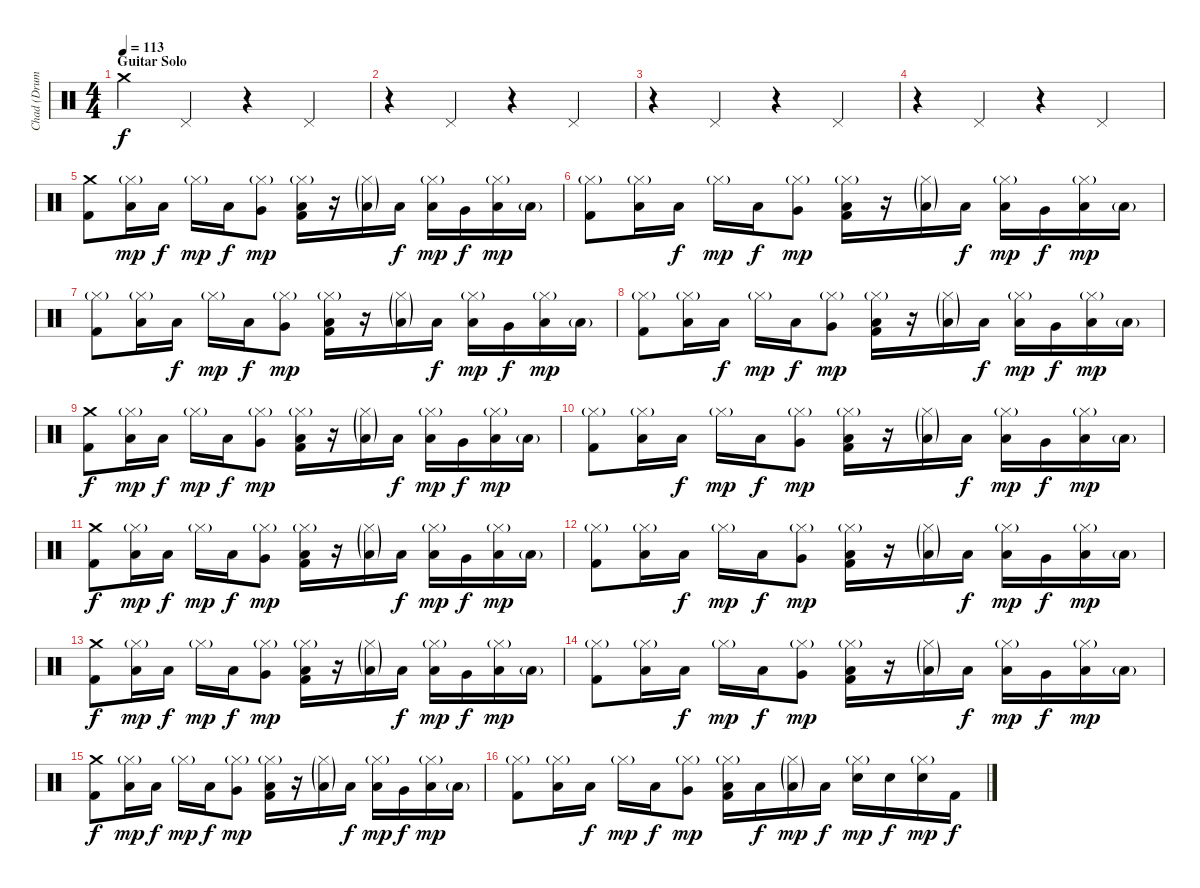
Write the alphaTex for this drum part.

\track ("Chad (Drums)" "Chad (Drum") {instrument percussion}
\staff {score}
\articulation defaults
\ts (4 4)
\section ("" "Guitar Solo")
\tempo 113
\clef neutral
\ks c "Crash medium (hit)".4{dy f} "Pedal Hi-Hat (hit)".4
r.4 "Pedal Hi-Hat (hit)".4 |
r.4 "Pedal Hi-Hat (hit)".4 r.4 "Pedal Hi-Hat (hit)".4 |
r.4 "Pedal Hi-Hat (hit)".4 r.4 "Pedal Hi-Hat (hit)".4 |
r.4 "Pedal Hi-Hat (hit)".4 r.4 "Pedal Hi-Hat (hit)".4 |
("Crash medium (hit)" "Kick (hit) 2").8 ("Hi-Hat (closed)"{g} "Low Tom (hit)").16{dy mp} "Low Tom (hit)".16{dy f} "Hi-Hat (closed)"{g}.16{dy mp} "Low Tom (hit)".16{dy f} ("Hi-Hat (closed)"{g} "Very Low Tom (hit)").8{dy mp} ("Hi-Hat (closed)"{g} "Low Tom (hit)" "Kick (hit) 2").16 r.16 ("Hi-Hat (closed)"{g} "Low Tom (hit)"{g}).16 "Low Tom (hit)".16{dy f} ("Hi-Hat (closed)"{g} "Low Tom (hit)").16{dy mp} "Very Low Tom (hit)".16{dy f} ("Hi-Hat (closed)"{g} "Low Floor Tom (hit)").16{dy mp} "Low Floor Tom (hit)"{g}.16 |
("Hi-Hat (closed)"{g} "Kick (hit) 2").8 ("Hi-Hat (closed)"{g} "Low Tom (hit)").16 "Low Tom (hit)".16{dy f} "Hi-Hat (closed)"{g}.16{dy mp} "Low Tom (hit)".16{dy f} ("Hi-Hat (closed)"{g} "Very Low Tom (hit)").8{dy mp} ("Hi-Hat (closed)"{g} "Low Tom (hit)" "Kick (hit) 2").16 r.16 ("Hi-Hat (closed)"{g} "Low Tom (hit)"{g}).16 "Low Tom (hit)".16{dy f} ("Hi-Hat (closed)"{g} "Low Tom (hit)").16{dy mp} "Very Low Tom (hit)".16{dy f} ("Hi-Hat (closed)"{g} "Low Floor Tom (hit)").16{dy mp} "Low Floor Tom (hit)"{g}.16 |
("Hi-Hat (closed)"{g} "Kick (hit) 2").8 ("Hi-Hat (closed)"{g} "Low Tom (hit)").16 "Low Tom (hit)".16{dy f} "Hi-Hat (closed)"{g}.16{dy mp} "Low Tom (hit)".16{dy f} ("Hi-Hat (closed)"{g} "Very Low Tom (hit)").8{dy mp} ("Hi-Hat (closed)"{g} "Low Tom (hit)" "Kick (hit) 2").16 r.16 ("Hi-Hat (closed)"{g} "Low Tom (hit)"{g}).16 "Low Tom (hit)".16{dy f} ("Hi-Hat (closed)"{g} "Low Tom (hit)").16{dy mp} "Very Low Tom (hit)".16{dy f} ("Hi-Hat (closed)"{g} "Low Floor Tom (hit)").16{dy mp} "Low Floor Tom (hit)"{g}.16 |
("Hi-Hat (closed)"{g} "Kick (hit) 2").8 ("Hi-Hat (closed)"{g} "Low Tom (hit)").16 "Low Tom (hit)".16{dy f} "Hi-Hat (closed)"{g}.16{dy mp} "Low Tom (hit)".16{dy f} ("Hi-Hat (closed)"{g} "Very Low Tom (hit)").8{dy mp} ("Hi-Hat (closed)"{g} "Low Tom (hit)" "Kick (hit) 2").16 r.16 ("Hi-Hat (closed)"{g} "Low Tom (hit)"{g}).16 "Low Tom (hit)".16{dy f} ("Hi-Hat (closed)"{g} "Low Tom (hit)").16{dy mp} "Very Low Tom (hit)".16{dy f} ("Hi-Hat (closed)"{g} "Low Floor Tom (hit)").16{dy mp} "Low Floor Tom (hit)"{g}.16 |
("Crash medium (hit)" "Kick (hit) 2").8{dy f} ("Hi-Hat (closed)"{g} "Low Tom (hit)").16{dy mp} "Low Tom (hit)".16{dy f} "Hi-Hat (closed)"{g}.16{dy mp} "Low Tom (hit)".16{dy f} ("Hi-Hat (closed)"{g} "Very Low Tom (hit)").8{dy mp} ("Hi-Hat (closed)"{g} "Low Tom (hit)" "Kick (hit) 2").16 r.16 ("Hi-Hat (closed)"{g} "Low Tom (hit)"{g}).16 "Low Tom (hit)".16{dy f} ("Hi-Hat (closed)"{g} "Low Tom (hit)").16{dy mp} "Very Low Tom (hit)".16{dy f} ("Hi-Hat (closed)"{g} "Low Floor Tom (hit)").16{dy mp} "Low Floor Tom (hit)"{g}.16 |
("Hi-Hat (closed)"{g} "Kick (hit) 2").8 ("Hi-Hat (closed)"{g} "Low Tom (hit)").16 "Low Tom (hit)".16{dy f} "Hi-Hat (closed)"{g}.16{dy mp} "Low Tom (hit)".16{dy f} ("Hi-Hat (closed)"{g} "Very Low Tom (hit)").8{dy mp} ("Hi-Hat (closed)"{g} "Low Tom (hit)" "Kick (hit) 2").16 r.16 ("Hi-Hat (closed)"{g} "Low Tom (hit)"{g}).16 "Low Tom (hit)".16{dy f} ("Hi-Hat (closed)"{g} "Low Tom (hit)").16{dy mp} "Very Low Tom (hit)".16{dy f} ("Hi-Hat (closed)"{g} "Low Floor Tom (hit)").16{dy mp} "Low Floor Tom (hit)"{g}.16 |
("Crash medium (hit)" "Kick (hit) 2").8{dy f} ("Hi-Hat (closed)"{g} "Low Tom (hit)").16{dy mp} "Low Tom (hit)".16{dy f} "Hi-Hat (closed)"{g}.16{dy mp} "Low Tom (hit)".16{dy f} ("Hi-Hat (closed)"{g} "Very Low Tom (hit)").8{dy mp} ("Hi-Hat (closed)"{g} "Low Tom (hit)" "Kick (hit) 2").16 r.16 ("Hi-Hat (closed)"{g} "Low Tom (hit)"{g}).16 "Low Tom (hit)".16{dy f} ("Hi-Hat (closed)"{g} "Low Tom (hit)").16{dy mp} "Very Low Tom (hit)".16{dy f} ("Hi-Hat (closed)"{g} "Low Floor Tom (hit)").16{dy mp} "Low Floor Tom (hit)"{g}.16 |
("Hi-Hat (closed)"{g} "Kick (hit) 2").8 ("Hi-Hat (closed)"{g} "Low Tom (hit)").16 "Low Tom (hit)".16{dy f} "Hi-Hat (closed)"{g}.16{dy mp} "Low Tom (hit)".16{dy f} ("Hi-Hat (closed)"{g} "Very Low Tom (hit)").8{dy mp} ("Hi-Hat (closed)"{g} "Low Tom (hit)" "Kick (hit) 2").16 r.16 ("Hi-Hat (closed)"{g} "Low Tom (hit)"{g}).16 "Low Tom (hit)".16{dy f} ("Hi-Hat (closed)"{g} "Low Tom (hit)").16{dy mp} "Very Low Tom (hit)".16{dy f} ("Hi-Hat (closed)"{g} "Low Floor Tom (hit)").16{dy mp} "Low Floor Tom (hit)"{g}.16 |
("Crash medium (hit)" "Kick (hit) 2").8{dy f} ("Hi-Hat (closed)"{g} "Low Tom (hit)").16{dy mp} "Low Tom (hit)".16{dy f} "Hi-Hat (closed)"{g}.16{dy mp} "Low Tom (hit)".16{dy f} ("Hi-Hat (closed)"{g} "Very Low Tom (hit)").8{dy mp} ("Hi-Hat (closed)"{g} "Low Tom (hit)" "Kick (hit) 2").16 r.16 ("Hi-Hat (closed)"{g} "Low Tom (hit)"{g}).16 "Low Tom (hit)".16{dy f} ("Hi-Hat (closed)"{g} "Low Tom (hit)").16{dy mp} "Very Low Tom (hit)".16{dy f} ("Hi-Hat (closed)"{g} "Low Floor Tom (hit)").16{dy mp} "Low Floor Tom (hit)"{g}.16 |
("Hi-Hat (closed)"{g} "Kick (hit) 2").8 ("Hi-Hat (closed)"{g} "Low Tom (hit)").16 "Low Tom (hit)".16{dy f} "Hi-Hat (closed)"{g}.16{dy mp} "Low Tom (hit)".16{dy f} ("Hi-Hat (closed)"{g} "Very Low Tom (hit)").8{dy mp} ("Hi-Hat (closed)"{g} "Low Tom (hit)" "Kick (hit) 2").16 r.16 ("Hi-Hat (closed)"{g} "Low Tom (hit)"{g}).16 "Low Tom (hit)".16{dy f} ("Hi-Hat (closed)"{g} "Low Tom (hit)").16{dy mp} "Very Low Tom (hit)".16{dy f} ("Hi-Hat (closed)"{g} "Low Floor Tom (hit)").16{dy mp} "Low Floor Tom (hit)"{g}.16 |
("Crash medium (hit)" "Kick (hit) 2").8{dy f} ("Hi-Hat (closed)"{g} "Low Tom (hit)").16{dy mp} "Low Tom (hit)".16{dy f} "Hi-Hat (closed)"{g}.16{dy mp} "Low Tom (hit)".16{dy f} ("Hi-Hat (closed)"{g} "Very Low Tom (hit)").8{dy mp} ("Hi-Hat (closed)"{g} "Low Tom (hit)" "Kick (hit) 2").16 r.16 ("Hi-Hat (closed)"{g} "Low Tom (hit)"{g}).16 "Low Tom (hit)".16{dy f} ("Hi-Hat (closed)"{g} "Low Tom (hit)").16{dy mp} "Very Low Tom (hit)".16{dy f} ("Hi-Hat (closed)"{g} "Low Floor Tom (hit)").16{dy mp} "Low Floor Tom (hit)"{g}.16 |
("Hi-Hat (closed)"{g} "Kick (hit) 2").8 ("Hi-Hat (closed)"{g} "Low Tom (hit)").16 "Low Tom (hit)".16{dy f} "Hi-Hat (closed)"{g}.16{dy mp} "Low Tom (hit)".16{dy f} ("Hi-Hat (closed)"{g} "Very Low Tom (hit)").8{dy mp} ("Hi-Hat (closed)"{g} "Low Tom (hit)" "Kick (hit) 2").16 "Low Tom (hit)".16{dy f} ("Hi-Hat (closed)"{g} "Low Tom (hit)"{g}).16{dy mp} "Low Tom (hit)".16{dy f} ("Hi-Hat (closed)"{g} "Snare (hit) 2").16{dy mp} "Snare (hit) 2".16{dy f} ("Hi-Hat (closed)"{g} "Snare (hit) 2").16{dy mp} "Kick (hit) 2".16{dy f}
